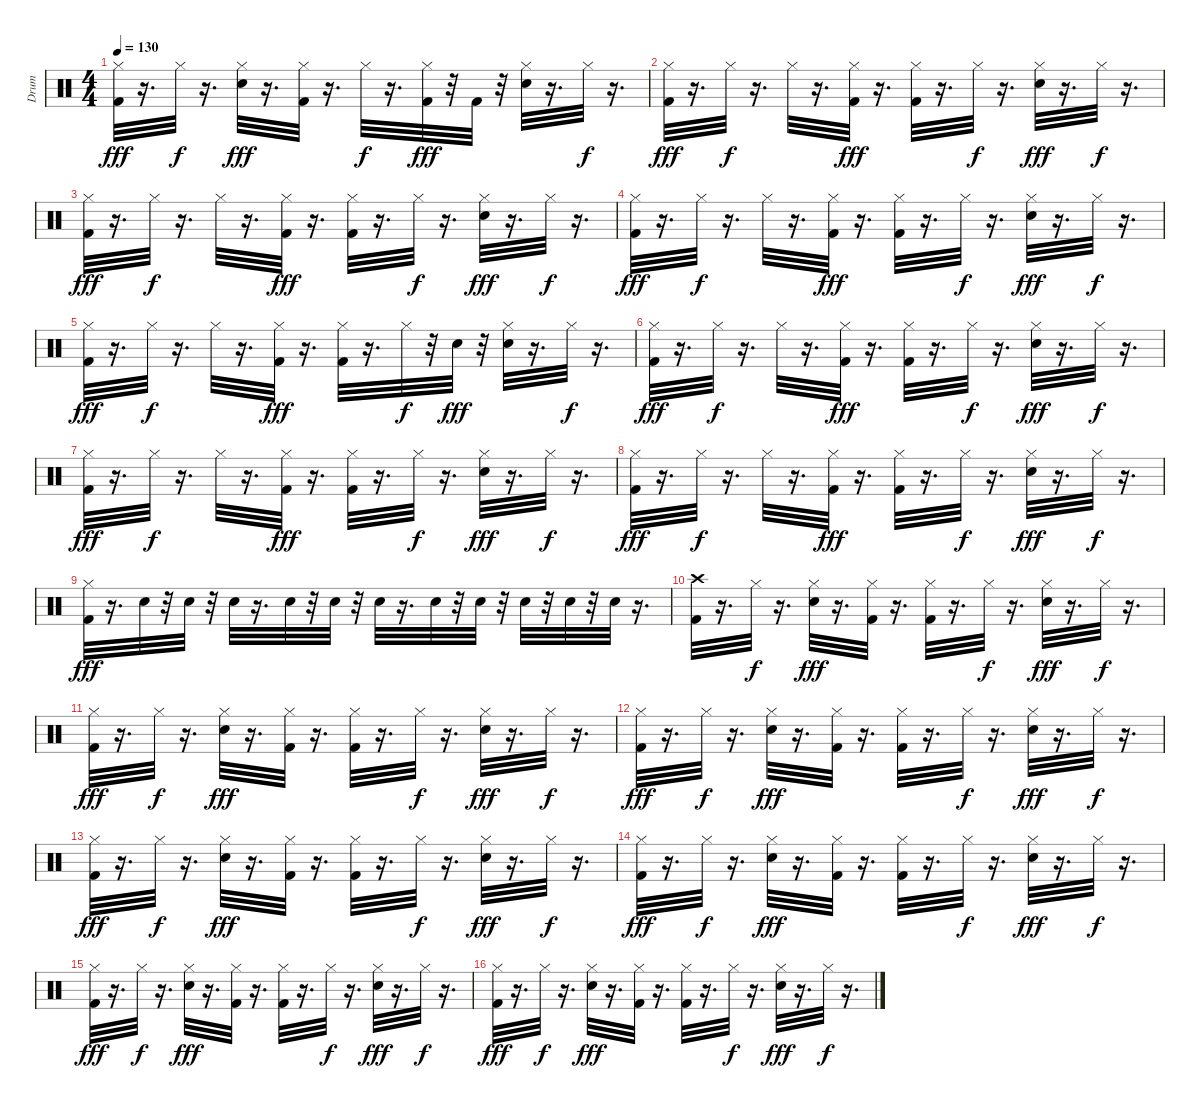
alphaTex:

\track ("Drum" "Drum") {instrument percussion}
\staff {score}
\articulation defaults
\ts (4 4)
\tempo 130
\clef neutral
\ks c
("Hi-Hat (closed)" "Kick (hit) 2").32{dy fff} r.16{d} "Hi-Hat (closed)".32{dy f} r.16{d} ("Hi-Hat (closed)" "Electric Snare (hit)").32{dy fff} r.16{d} ("Kick (hit) 2" "Hi-Hat (closed)").32 r.16{d} "Hi-Hat (closed)".32{dy f} r.16{d} ("Hi-Hat (closed)" "Kick (hit) 2").32{dy fff} r.32 "Kick (hit) 2".32 r.32 ("Electric Snare (hit)" "Hi-Hat (closed)").32 r.16{d} "Hi-Hat (closed)".32{dy f} r.16{d} |
("Kick (hit) 2" "Hi-Hat (closed)").32{dy fff} r.16{d} "Hi-Hat (closed)".32{dy f} r.16{d} "Hi-Hat (closed)".32 r.16{d} ("Kick (hit) 2" "Hi-Hat (closed)").32{dy fff} r.16{d} ("Kick (hit) 2" "Hi-Hat (closed)").32 r.16{d} "Hi-Hat (closed)".32{dy f} r.16{d} ("Hi-Hat (closed)" "Electric Snare (hit)").32{dy fff} r.16{d} "Hi-Hat (closed)".32{dy f} r.16{d} |
("Kick (hit) 2" "Hi-Hat (closed)").32{dy fff} r.16{d} "Hi-Hat (closed)".32{dy f} r.16{d} "Hi-Hat (closed)".32 r.16{d} ("Kick (hit) 2" "Hi-Hat (closed)").32{dy fff} r.16{d} ("Kick (hit) 2" "Hi-Hat (closed)").32 r.16{d} "Hi-Hat (closed)".32{dy f} r.16{d} ("Hi-Hat (closed)" "Electric Snare (hit)").32{dy fff} r.16{d} "Hi-Hat (closed)".32{dy f} r.16{d} |
("Kick (hit) 2" "Hi-Hat (closed)").32{dy fff} r.16{d} "Hi-Hat (closed)".32{dy f} r.16{d} "Hi-Hat (closed)".32 r.16{d} ("Kick (hit) 2" "Hi-Hat (closed)").32{dy fff} r.16{d} ("Kick (hit) 2" "Hi-Hat (closed)").32 r.16{d} "Hi-Hat (closed)".32{dy f} r.16{d} ("Hi-Hat (closed)" "Electric Snare (hit)").32{dy fff} r.16{d} "Hi-Hat (closed)".32{dy f} r.16{d} |
("Hi-Hat (closed)" "Kick (hit) 2").32{dy fff} r.16{d} "Hi-Hat (closed)".32{dy f} r.16{d} "Hi-Hat (closed)".32 r.16{d} ("Kick (hit) 2" "Hi-Hat (closed)").32{dy fff} r.16{d} ("Kick (hit) 2" "Hi-Hat (closed)").32 r.16{d} "Hi-Hat (closed)".32{dy f} r.32 "Electric Snare (hit)".32{dy fff} r.32 ("Electric Snare (hit)" "Hi-Hat (closed)").32 r.16{d} "Hi-Hat (closed)".32{dy f} r.16{d} |
("Hi-Hat (closed)" "Kick (hit) 2").32{dy fff} r.16{d} "Hi-Hat (closed)".32{dy f} r.16{d} "Hi-Hat (closed)".32 r.16{d} ("Kick (hit) 2" "Hi-Hat (closed)").32{dy fff} r.16{d} ("Kick (hit) 2" "Hi-Hat (closed)").32 r.16{d} "Hi-Hat (closed)".32{dy f} r.16{d} ("Hi-Hat (closed)" "Electric Snare (hit)").32{dy fff} r.16{d} "Hi-Hat (closed)".32{dy f} r.16{d} |
("Kick (hit) 2" "Hi-Hat (closed)").32{dy fff} r.16{d} "Hi-Hat (closed)".32{dy f} r.16{d} "Hi-Hat (closed)".32 r.16{d} ("Kick (hit) 2" "Hi-Hat (closed)").32{dy fff} r.16{d} ("Kick (hit) 2" "Hi-Hat (closed)").32 r.16{d} "Hi-Hat (closed)".32{dy f} r.16{d} ("Hi-Hat (closed)" "Electric Snare (hit)").32{dy fff} r.16{d} "Hi-Hat (closed)".32{dy f} r.16{d} |
("Hi-Hat (closed)" "Kick (hit) 2").32{dy fff} r.16{d} "Hi-Hat (closed)".32{dy f} r.16{d} "Hi-Hat (closed)".32 r.16{d} ("Kick (hit) 2" "Hi-Hat (closed)").32{dy fff} r.16{d} ("Kick (hit) 2" "Hi-Hat (closed)").32 r.16{d} "Hi-Hat (closed)".32{dy f} r.16{d} ("Hi-Hat (closed)" "Electric Snare (hit)").32{dy fff} r.16{d} "Hi-Hat (closed)".32{dy f} r.16{d} |
("Kick (hit) 2" "Hi-Hat (closed)").32{dy fff} r.16{d} "Snare (hit) 2".32 r.32 "Electric Snare (hit)".32 r.32 "Snare (hit) 2".32 r.16{d} "Snare (hit) 2".32 r.32 "Electric Snare (hit)".32 r.32 "Snare (hit) 2".32 r.16{d} "Snare (hit) 2".32 r.32 "Electric Snare (hit)".32 r.32 "Snare (hit) 2".32 r.32 "Electric Snare (hit)".32 r.32 "Snare (hit) 2".32 r.16{d} |
("Crash high (hit)" "Kick (hit) 2").32 r.16{d} "Hi-Hat (closed)".32{dy f} r.16{d} ("Hi-Hat (closed)" "Electric Snare (hit)").32{dy fff} r.16{d} ("Kick (hit) 2" "Hi-Hat (closed)").32 r.16{d} ("Kick (hit) 2" "Hi-Hat (closed)").32 r.16{d} "Hi-Hat (closed)".32{dy f} r.16{d} ("Hi-Hat (closed)" "Electric Snare (hit)").32{dy fff} r.16{d} "Hi-Hat (closed)".32{dy f} r.16{d} |
("Kick (hit) 2" "Hi-Hat (closed)").32{dy fff} r.16{d} "Hi-Hat (closed)".32{dy f} r.16{d} ("Hi-Hat (closed)" "Electric Snare (hit)").32{dy fff} r.16{d} ("Kick (hit) 2" "Hi-Hat (closed)").32 r.16{d} ("Kick (hit) 2" "Hi-Hat (closed)").32 r.16{d} "Hi-Hat (closed)".32{dy f} r.16{d} ("Hi-Hat (closed)" "Electric Snare (hit)").32{dy fff} r.16{d} "Hi-Hat (closed)".32{dy f} r.16{d} |
("Kick (hit) 2" "Hi-Hat (closed)").32{dy fff} r.16{d} "Hi-Hat (closed)".32{dy f} r.16{d} ("Hi-Hat (closed)" "Electric Snare (hit)").32{dy fff} r.16{d} ("Kick (hit) 2" "Hi-Hat (closed)").32 r.16{d} ("Kick (hit) 2" "Hi-Hat (closed)").32 r.16{d} "Hi-Hat (closed)".32{dy f} r.16{d} ("Hi-Hat (closed)" "Electric Snare (hit)").32{dy fff} r.16{d} "Hi-Hat (closed)".32{dy f} r.16{d} |
("Kick (hit) 2" "Hi-Hat (closed)").32{dy fff} r.16{d} "Hi-Hat (closed)".32{dy f} r.16{d} ("Hi-Hat (closed)" "Electric Snare (hit)").32{dy fff} r.16{d} ("Kick (hit) 2" "Hi-Hat (closed)").32 r.16{d} ("Kick (hit) 2" "Hi-Hat (closed)").32 r.16{d} "Hi-Hat (closed)".32{dy f} r.16{d} ("Hi-Hat (closed)" "Electric Snare (hit)").32{dy fff} r.16{d} "Hi-Hat (closed)".32{dy f} r.16{d} |
("Kick (hit) 2" "Hi-Hat (closed)").32{dy fff} r.16{d} "Hi-Hat (closed)".32{dy f} r.16{d} ("Hi-Hat (closed)" "Electric Snare (hit)").32{dy fff} r.16{d} ("Kick (hit) 2" "Hi-Hat (closed)").32 r.16{d} ("Kick (hit) 2" "Hi-Hat (closed)").32 r.16{d} "Hi-Hat (closed)".32{dy f} r.16{d} ("Hi-Hat (closed)" "Electric Snare (hit)").32{dy fff} r.16{d} "Hi-Hat (closed)".32{dy f} r.16{d} |
("Kick (hit) 2" "Hi-Hat (closed)").32{dy fff} r.16{d} "Hi-Hat (closed)".32{dy f} r.16{d} ("Hi-Hat (closed)" "Electric Snare (hit)").32{dy fff} r.16{d} ("Kick (hit) 2" "Hi-Hat (closed)").32 r.16{d} ("Kick (hit) 2" "Hi-Hat (closed)").32 r.16{d} "Hi-Hat (closed)".32{dy f} r.16{d} ("Hi-Hat (closed)" "Electric Snare (hit)").32{dy fff} r.16{d} "Hi-Hat (closed)".32{dy f} r.16{d} |
("Kick (hit) 2" "Hi-Hat (closed)").32{dy fff} r.16{d} "Hi-Hat (closed)".32{dy f} r.16{d} ("Hi-Hat (closed)" "Electric Snare (hit)").32{dy fff} r.16{d} ("Kick (hit) 2" "Hi-Hat (closed)").32 r.16{d} ("Kick (hit) 2" "Hi-Hat (closed)").32 r.16{d} "Hi-Hat (closed)".32{dy f} r.16{d} ("Hi-Hat (closed)" "Electric Snare (hit)").32{dy fff} r.16{d} "Hi-Hat (closed)".32{dy f} r.16{d}
